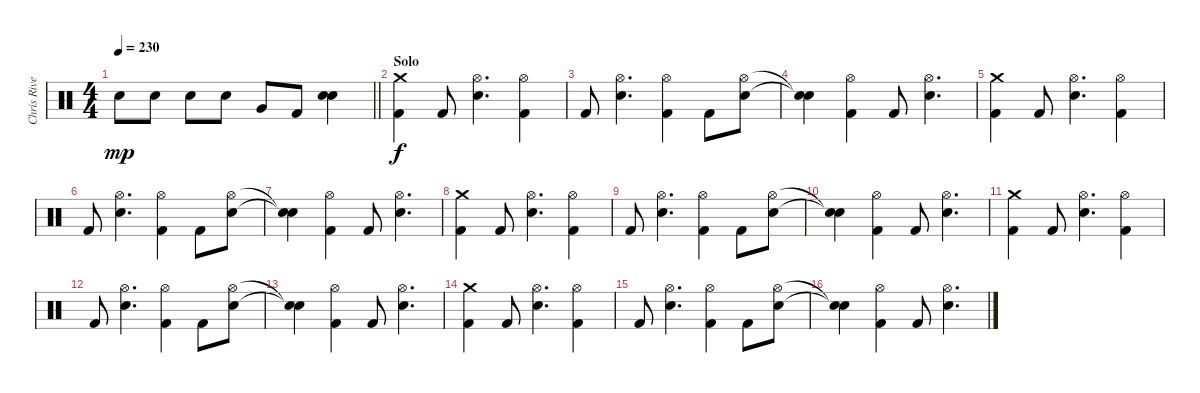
\track ("Chris Rivers" "Chris Rive") {instrument percussion}
\staff {score}
\articulation defaults
\ts (4 4)
\tempo 230
\clef neutral
\barLineRight lightlight
\ks c "Electric Snare (hit)".8{dy mp} "Electric Snare (hit)".8 "Electric Snare (hit)".8 "Electric Snare (hit)".8 "Very Low Tom (hit)".8 "Kick (hit) 2".8
("Electric Snare (hit)" "Electric Snare (hit)").4 |
\section ("" "Solo")
("Crash medium (hit)" "Kick (hit) 2").4{dy f} "Kick (hit) 2".8 ("Hi-Hat (open)" "Electric Snare (hit)").4{d} ("Hi-Hat (open)" "Kick (hit) 2").4 |
"Kick (hit) 2".8 ("Hi-Hat (open)" "Electric Snare (hit)").4{d} ("Hi-Hat (open)" "Kick (hit) 2").4 "Kick (hit) 2".8 ("Hi-Hat (open)" "Electric Snare (hit)").8 |
("Snare (hit)"{t} "Snare (hit)"{t}).4 ("Hi-Hat (open)" "Kick (hit) 2").4 "Kick (hit) 2".8 ("Hi-Hat (open)" "Electric Snare (hit)").4{d} |
("Crash medium (hit)" "Kick (hit) 2").4 "Kick (hit) 2".8 ("Hi-Hat (open)" "Electric Snare (hit)").4{d} ("Hi-Hat (open)" "Kick (hit) 2").4 |
"Kick (hit) 2".8 ("Hi-Hat (open)" "Electric Snare (hit)").4{d} ("Hi-Hat (open)" "Kick (hit) 2").4 "Kick (hit) 2".8 ("Hi-Hat (open)" "Electric Snare (hit)").8 |
("Snare (hit)"{t} "Snare (hit)"{t}).4 ("Hi-Hat (open)" "Kick (hit) 2").4 "Kick (hit) 2".8 ("Hi-Hat (open)" "Electric Snare (hit)").4{d} |
("Crash medium (hit)" "Kick (hit) 2").4 "Kick (hit) 2".8 ("Hi-Hat (open)" "Electric Snare (hit)").4{d} ("Hi-Hat (open)" "Kick (hit) 2").4 |
"Kick (hit) 2".8 ("Hi-Hat (open)" "Electric Snare (hit)").4{d} ("Hi-Hat (open)" "Kick (hit) 2").4 "Kick (hit) 2".8 ("Hi-Hat (open)" "Electric Snare (hit)").8 |
("Snare (hit)"{t} "Snare (hit)"{t}).4 ("Hi-Hat (open)" "Kick (hit) 2").4 "Kick (hit) 2".8 ("Hi-Hat (open)" "Electric Snare (hit)").4{d} |
("Crash medium (hit)" "Kick (hit) 2").4 "Kick (hit) 2".8 ("Hi-Hat (open)" "Electric Snare (hit)").4{d} ("Hi-Hat (open)" "Kick (hit) 2").4 |
"Kick (hit) 2".8 ("Hi-Hat (open)" "Electric Snare (hit)").4{d} ("Hi-Hat (open)" "Kick (hit) 2").4 "Kick (hit) 2".8 ("Hi-Hat (open)" "Electric Snare (hit)").8 |
("Snare (hit)"{t} "Snare (hit)"{t}).4 ("Hi-Hat (open)" "Kick (hit) 2").4 "Kick (hit) 2".8 ("Hi-Hat (open)" "Electric Snare (hit)").4{d} |
("Crash medium (hit)" "Kick (hit) 2").4 "Kick (hit) 2".8 ("Hi-Hat (open)" "Electric Snare (hit)").4{d} ("Hi-Hat (open)" "Kick (hit) 2").4 |
"Kick (hit) 2".8 ("Hi-Hat (open)" "Electric Snare (hit)").4{d} ("Hi-Hat (open)" "Kick (hit) 2").4 "Kick (hit) 2".8 ("Hi-Hat (open)" "Electric Snare (hit)").8 |
("Snare (hit)"{t} "Snare (hit)"{t}).4 ("Hi-Hat (open)" "Kick (hit) 2").4 "Kick (hit) 2".8 ("Hi-Hat (open)" "Electric Snare (hit)").4{d}
